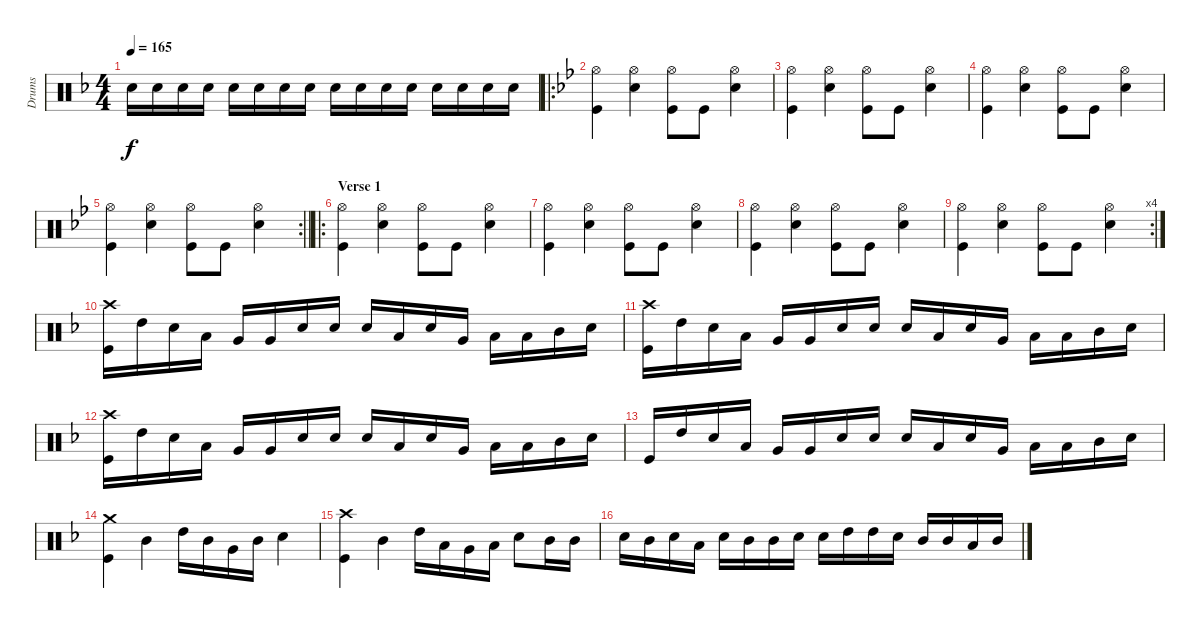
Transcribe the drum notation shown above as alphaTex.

\track ("Drums" "Drums") {instrument percussion}
\staff {score}
\articulation defaults
\ts (4 4)
\tempo 165
\clef neutral
\ks f "Snare (hit) 2".16{dy f} "Snare (hit) 2".16 "Snare (hit) 2".16 "Snare (hit) 2".16 "Snare (hit) 2".16 "Snare (hit) 2".16 "Snare (hit) 2".16 "Snare (hit) 2".16 "Snare (hit) 2".16 "Snare (hit) 2".16 "Snare (hit) 2".16 "Snare (hit) 2".16 "Snare (hit) 2".16 "Snare (hit) 2".16 "Snare (hit) 2".16 "Snare (hit) 2".16
|
\ro
\ks bb
("Hi-Hat (open)" "Kick (hit)").4 ("Hi-Hat (open)" "Snare (hit) 2").4 ("Hi-Hat (open)" "Kick (hit)").8 "Kick (hit)".8 ("Hi-Hat (open)" "Snare (hit) 2").4 |
("Hi-Hat (open)" "Kick (hit)").4 ("Hi-Hat (open)" "Snare (hit) 2").4 ("Hi-Hat (open)" "Kick (hit)").8 "Kick (hit)".8 ("Hi-Hat (open)" "Snare (hit) 2").4 |
("Hi-Hat (open)" "Kick (hit)").4 ("Hi-Hat (open)" "Snare (hit) 2").4 ("Hi-Hat (open)" "Kick (hit)").8 "Kick (hit)".8 ("Hi-Hat (open)" "Snare (hit) 2").4 |
\rc 2
\barLineRight lightlight
("Hi-Hat (open)" "Kick (hit)").4 ("Hi-Hat (open)" "Snare (hit) 2").4 ("Hi-Hat (open)" "Kick (hit)").8 "Kick (hit)".8 ("Hi-Hat (open)" "Snare (hit) 2").4 |
\ro
\section ("" "Verse 1")
("Hi-Hat (open)" "Kick (hit)").4 ("Hi-Hat (open)" "Snare (hit) 2").4 ("Hi-Hat (open)" "Kick (hit)").8 "Kick (hit)".8 ("Hi-Hat (open)" "Snare (hit) 2").4 |
("Hi-Hat (open)" "Kick (hit)").4 ("Hi-Hat (open)" "Snare (hit) 2").4 ("Hi-Hat (open)" "Kick (hit)").8 "Kick (hit)".8 ("Hi-Hat (open)" "Snare (hit) 2").4 |
("Hi-Hat (open)" "Kick (hit)").4 ("Hi-Hat (open)" "Snare (hit) 2").4 ("Hi-Hat (open)" "Kick (hit)").8 "Kick (hit)".8 ("Hi-Hat (open)" "Snare (hit) 2").4 |
\rc 4
("Hi-Hat (open)" "Kick (hit)").4 ("Hi-Hat (open)" "Snare (hit) 2").4 ("Hi-Hat (open)" "Kick (hit)").8 "Kick (hit)".8 ("Hi-Hat (open)" "Snare (hit) 2").4 |
\ks f
("Crash high (hit)" "Kick (hit)").16 "High Tom (hit)".16 "Snare (hit) 2".16 "Low Tom (hit)".16 "Very Low Tom (hit)".16 "Very Low Tom (hit)".16 "Snare (hit) 2".16 "Snare (hit) 2".16 "Snare (hit) 2".16 "Low Floor Tom (hit)".16 "Snare (hit) 2".16 "Very Low Tom (hit)".16 "Low Tom (hit)".16 "Low Tom (hit)".16 "Mid Tom (hit)".16 "Snare (hit) 2".16 |
("Crash high (hit)" "Kick (hit)").16 "High Tom (hit)".16 "Snare (hit) 2".16 "Low Tom (hit)".16 "Very Low Tom (hit)".16 "Very Low Tom (hit)".16 "Snare (hit) 2".16 "Snare (hit) 2".16 "Snare (hit) 2".16 "Low Floor Tom (hit)".16 "Snare (hit) 2".16 "Very Low Tom (hit)".16 "Low Tom (hit)".16 "Low Tom (hit)".16 "Mid Tom (hit)".16 "Snare (hit) 2".16 |
("Crash high (hit)" "Kick (hit)").16 "High Tom (hit)".16 "Snare (hit) 2".16 "Low Tom (hit)".16 "Very Low Tom (hit)".16 "Very Low Tom (hit)".16 "Snare (hit) 2".16 "Snare (hit) 2".16 "Snare (hit) 2".16 "Low Floor Tom (hit)".16 "Snare (hit) 2".16 "Very Low Tom (hit)".16 "Low Tom (hit)".16 "Low Tom (hit)".16 "Mid Tom (hit)".16 "Snare (hit) 2".16 |
"Kick (hit)".16 "High Tom (hit)".16 "Snare (hit) 2".16 "Low Tom (hit)".16 "Very Low Tom (hit)".16 "Very Low Tom (hit)".16 "Snare (hit) 2".16 "Snare (hit) 2".16 "Snare (hit) 2".16 "Low Floor Tom (hit)".16 "Snare (hit) 2".16 "Very Low Tom (hit)".16 "Low Tom (hit)".16 "Low Tom (hit)".16 "Mid Tom (hit)".16 "Snare (hit) 2".16 |
("Crash medium (hit)" "Kick (hit)").4 "Mid Tom (hit)".4 "High Tom (hit)".16 "Mid Tom (hit)".16 "Very Low Tom (hit)".16 "Mid Tom (hit)".16 "Snare (hit) 2".4 |
("Crash high (hit)" "Kick (hit)").4 "Mid Tom (hit)".4 "High Tom (hit)".16 "Low Tom (hit)".16 "Very Low Tom (hit)".16 "Low Tom (hit)".16 "Snare (hit) 2".8 "Mid Tom (hit)".16 "Mid Tom (hit)".16 |
"Snare (hit) 2".16 "Mid Tom (hit)".16 "Snare (hit) 2".16 "Low Tom (hit)".16 "Snare (hit) 2".16 "Mid Tom (hit)".16 "Mid Tom (hit)".16 "Snare (hit) 2".16 "Snare (hit) 2".16 "High Tom (hit)".16 "High Tom (hit)".16 "Snare (hit) 2".16 "Mid Tom (hit)".16 "Mid Tom (hit)".16 "Low Tom (hit)".16 "Mid Tom (hit)".16
